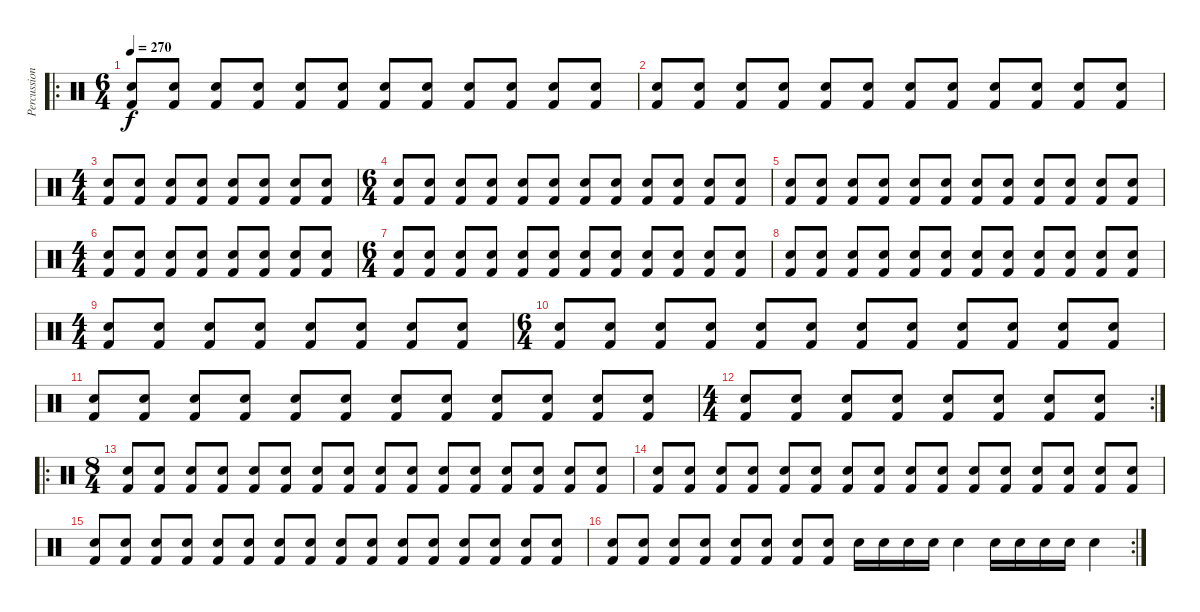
\track ("Percussion" "Percussion") {instrument percussion}
\staff {score}
\articulation defaults
\ro
\ts (6 4)
\tempo 270
\clef neutral
\ks c
("Electric Snare (hit)" "Kick (hit) 2").8{dy f} ("Electric Snare (hit)" "Kick (hit) 2").8 ("Electric Snare (hit)" "Kick (hit) 2").8 ("Electric Snare (hit)" "Kick (hit) 2").8 ("Electric Snare (hit)" "Kick (hit) 2").8 ("Electric Snare (hit)" "Kick (hit) 2").8 ("Electric Snare (hit)" "Kick (hit) 2").8 ("Electric Snare (hit)" "Kick (hit) 2").8 ("Electric Snare (hit)" "Kick (hit) 2").8 ("Electric Snare (hit)" "Kick (hit) 2").8 ("Electric Snare (hit)" "Kick (hit) 2").8 ("Electric Snare (hit)" "Kick (hit) 2").8 |
("Electric Snare (hit)" "Kick (hit) 2").8 ("Electric Snare (hit)" "Kick (hit) 2").8 ("Electric Snare (hit)" "Kick (hit) 2").8 ("Electric Snare (hit)" "Kick (hit) 2").8 ("Electric Snare (hit)" "Kick (hit) 2").8 ("Electric Snare (hit)" "Kick (hit) 2").8 ("Electric Snare (hit)" "Kick (hit) 2").8 ("Electric Snare (hit)" "Kick (hit) 2").8 ("Electric Snare (hit)" "Kick (hit) 2").8 ("Electric Snare (hit)" "Kick (hit) 2").8 ("Electric Snare (hit)" "Kick (hit) 2").8 ("Electric Snare (hit)" "Kick (hit) 2").8 |
\ts (4 4)
("Electric Snare (hit)" "Kick (hit) 2").8 ("Electric Snare (hit)" "Kick (hit) 2").8 ("Electric Snare (hit)" "Kick (hit) 2").8 ("Electric Snare (hit)" "Kick (hit) 2").8 ("Electric Snare (hit)" "Kick (hit) 2").8 ("Electric Snare (hit)" "Kick (hit) 2").8 ("Electric Snare (hit)" "Kick (hit) 2").8 ("Electric Snare (hit)" "Kick (hit) 2").8 |
\ts (6 4)
("Electric Snare (hit)" "Kick (hit) 2").8 ("Electric Snare (hit)" "Kick (hit) 2").8 ("Electric Snare (hit)" "Kick (hit) 2").8 ("Electric Snare (hit)" "Kick (hit) 2").8 ("Electric Snare (hit)" "Kick (hit) 2").8 ("Electric Snare (hit)" "Kick (hit) 2").8 ("Electric Snare (hit)" "Kick (hit) 2").8 ("Electric Snare (hit)" "Kick (hit) 2").8 ("Electric Snare (hit)" "Kick (hit) 2").8 ("Electric Snare (hit)" "Kick (hit) 2").8 ("Electric Snare (hit)" "Kick (hit) 2").8 ("Electric Snare (hit)" "Kick (hit) 2").8 |
("Electric Snare (hit)" "Kick (hit) 2").8 ("Electric Snare (hit)" "Kick (hit) 2").8 ("Electric Snare (hit)" "Kick (hit) 2").8 ("Electric Snare (hit)" "Kick (hit) 2").8 ("Electric Snare (hit)" "Kick (hit) 2").8 ("Electric Snare (hit)" "Kick (hit) 2").8 ("Electric Snare (hit)" "Kick (hit) 2").8 ("Electric Snare (hit)" "Kick (hit) 2").8 ("Electric Snare (hit)" "Kick (hit) 2").8 ("Electric Snare (hit)" "Kick (hit) 2").8 ("Electric Snare (hit)" "Kick (hit) 2").8 ("Electric Snare (hit)" "Kick (hit) 2").8 |
\ts (4 4)
("Electric Snare (hit)" "Kick (hit) 2").8 ("Electric Snare (hit)" "Kick (hit) 2").8 ("Electric Snare (hit)" "Kick (hit) 2").8 ("Electric Snare (hit)" "Kick (hit) 2").8 ("Electric Snare (hit)" "Kick (hit) 2").8 ("Electric Snare (hit)" "Kick (hit) 2").8 ("Electric Snare (hit)" "Kick (hit) 2").8 ("Electric Snare (hit)" "Kick (hit) 2").8 |
\ts (6 4)
("Electric Snare (hit)" "Kick (hit) 2").8 ("Electric Snare (hit)" "Kick (hit) 2").8 ("Electric Snare (hit)" "Kick (hit) 2").8 ("Electric Snare (hit)" "Kick (hit) 2").8 ("Electric Snare (hit)" "Kick (hit) 2").8 ("Electric Snare (hit)" "Kick (hit) 2").8 ("Electric Snare (hit)" "Kick (hit) 2").8 ("Electric Snare (hit)" "Kick (hit) 2").8 ("Electric Snare (hit)" "Kick (hit) 2").8 ("Electric Snare (hit)" "Kick (hit) 2").8 ("Electric Snare (hit)" "Kick (hit) 2").8 ("Electric Snare (hit)" "Kick (hit) 2").8 |
("Electric Snare (hit)" "Kick (hit) 2").8 ("Electric Snare (hit)" "Kick (hit) 2").8 ("Electric Snare (hit)" "Kick (hit) 2").8 ("Electric Snare (hit)" "Kick (hit) 2").8 ("Electric Snare (hit)" "Kick (hit) 2").8 ("Electric Snare (hit)" "Kick (hit) 2").8 ("Electric Snare (hit)" "Kick (hit) 2").8 ("Electric Snare (hit)" "Kick (hit) 2").8 ("Electric Snare (hit)" "Kick (hit) 2").8 ("Electric Snare (hit)" "Kick (hit) 2").8 ("Electric Snare (hit)" "Kick (hit) 2").8 ("Electric Snare (hit)" "Kick (hit) 2").8 |
\ts (4 4)
("Electric Snare (hit)" "Kick (hit) 2").8 ("Electric Snare (hit)" "Kick (hit) 2").8 ("Electric Snare (hit)" "Kick (hit) 2").8 ("Electric Snare (hit)" "Kick (hit) 2").8 ("Electric Snare (hit)" "Kick (hit) 2").8 ("Electric Snare (hit)" "Kick (hit) 2").8 ("Electric Snare (hit)" "Kick (hit) 2").8 ("Electric Snare (hit)" "Kick (hit) 2").8 |
\ts (6 4)
("Electric Snare (hit)" "Kick (hit) 2").8 ("Electric Snare (hit)" "Kick (hit) 2").8 ("Electric Snare (hit)" "Kick (hit) 2").8 ("Electric Snare (hit)" "Kick (hit) 2").8 ("Electric Snare (hit)" "Kick (hit) 2").8 ("Electric Snare (hit)" "Kick (hit) 2").8 ("Electric Snare (hit)" "Kick (hit) 2").8 ("Electric Snare (hit)" "Kick (hit) 2").8 ("Electric Snare (hit)" "Kick (hit) 2").8 ("Electric Snare (hit)" "Kick (hit) 2").8 ("Electric Snare (hit)" "Kick (hit) 2").8 ("Electric Snare (hit)" "Kick (hit) 2").8 |
("Electric Snare (hit)" "Kick (hit) 2").8 ("Electric Snare (hit)" "Kick (hit) 2").8 ("Electric Snare (hit)" "Kick (hit) 2").8 ("Electric Snare (hit)" "Kick (hit) 2").8 ("Electric Snare (hit)" "Kick (hit) 2").8 ("Electric Snare (hit)" "Kick (hit) 2").8 ("Electric Snare (hit)" "Kick (hit) 2").8 ("Electric Snare (hit)" "Kick (hit) 2").8 ("Electric Snare (hit)" "Kick (hit) 2").8 ("Electric Snare (hit)" "Kick (hit) 2").8 ("Electric Snare (hit)" "Kick (hit) 2").8 ("Electric Snare (hit)" "Kick (hit) 2").8 |
\rc 2
\ts (4 4)
("Electric Snare (hit)" "Kick (hit) 2").8 ("Electric Snare (hit)" "Kick (hit) 2").8 ("Electric Snare (hit)" "Kick (hit) 2").8 ("Electric Snare (hit)" "Kick (hit) 2").8 ("Electric Snare (hit)" "Kick (hit) 2").8 ("Electric Snare (hit)" "Kick (hit) 2").8 ("Electric Snare (hit)" "Kick (hit) 2").8 ("Electric Snare (hit)" "Kick (hit) 2").8 |
\ro
\ts (8 4)
("Electric Snare (hit)" "Kick (hit) 2").8 ("Electric Snare (hit)" "Kick (hit) 2").8 ("Electric Snare (hit)" "Kick (hit) 2").8 ("Electric Snare (hit)" "Kick (hit) 2").8 ("Electric Snare (hit)" "Kick (hit) 2").8 ("Electric Snare (hit)" "Kick (hit) 2").8 ("Electric Snare (hit)" "Kick (hit) 2").8 ("Electric Snare (hit)" "Kick (hit) 2").8 ("Electric Snare (hit)" "Kick (hit) 2").8 ("Electric Snare (hit)" "Kick (hit) 2").8 ("Electric Snare (hit)" "Kick (hit) 2").8 ("Electric Snare (hit)" "Kick (hit) 2").8 ("Electric Snare (hit)" "Kick (hit) 2").8 ("Electric Snare (hit)" "Kick (hit) 2").8 ("Electric Snare (hit)" "Kick (hit) 2").8 ("Electric Snare (hit)" "Kick (hit) 2").8 |
("Electric Snare (hit)" "Kick (hit) 2").8 ("Electric Snare (hit)" "Kick (hit) 2").8 ("Electric Snare (hit)" "Kick (hit) 2").8 ("Electric Snare (hit)" "Kick (hit) 2").8 ("Electric Snare (hit)" "Kick (hit) 2").8 ("Electric Snare (hit)" "Kick (hit) 2").8 ("Electric Snare (hit)" "Kick (hit) 2").8 ("Electric Snare (hit)" "Kick (hit) 2").8 ("Electric Snare (hit)" "Kick (hit) 2").8 ("Electric Snare (hit)" "Kick (hit) 2").8 ("Electric Snare (hit)" "Kick (hit) 2").8 ("Electric Snare (hit)" "Kick (hit) 2").8 ("Electric Snare (hit)" "Kick (hit) 2").8 ("Electric Snare (hit)" "Kick (hit) 2").8 ("Electric Snare (hit)" "Kick (hit) 2").8 ("Electric Snare (hit)" "Kick (hit) 2").8 |
("Electric Snare (hit)" "Kick (hit) 2").8 ("Electric Snare (hit)" "Kick (hit) 2").8 ("Electric Snare (hit)" "Kick (hit) 2").8 ("Electric Snare (hit)" "Kick (hit) 2").8 ("Electric Snare (hit)" "Kick (hit) 2").8 ("Electric Snare (hit)" "Kick (hit) 2").8 ("Electric Snare (hit)" "Kick (hit) 2").8 ("Electric Snare (hit)" "Kick (hit) 2").8 ("Electric Snare (hit)" "Kick (hit) 2").8 ("Electric Snare (hit)" "Kick (hit) 2").8 ("Electric Snare (hit)" "Kick (hit) 2").8 ("Electric Snare (hit)" "Kick (hit) 2").8 ("Electric Snare (hit)" "Kick (hit) 2").8 ("Electric Snare (hit)" "Kick (hit) 2").8 ("Electric Snare (hit)" "Kick (hit) 2").8 ("Electric Snare (hit)" "Kick (hit) 2").8 |
\rc 2
("Electric Snare (hit)" "Kick (hit) 2").8 ("Electric Snare (hit)" "Kick (hit) 2").8 ("Electric Snare (hit)" "Kick (hit) 2").8 ("Electric Snare (hit)" "Kick (hit) 2").8 ("Electric Snare (hit)" "Kick (hit) 2").8 ("Electric Snare (hit)" "Kick (hit) 2").8 ("Electric Snare (hit)" "Kick (hit) 2").8 ("Electric Snare (hit)" "Kick (hit) 2").8 "Electric Snare (hit)".16 "Electric Snare (hit)".16 "Electric Snare (hit)".16 "Electric Snare (hit)".16 "Electric Snare (hit)".4 "Electric Snare (hit)".16 "Electric Snare (hit)".16 "Electric Snare (hit)".16 "Electric Snare (hit)".16 "Electric Snare (hit)".4
